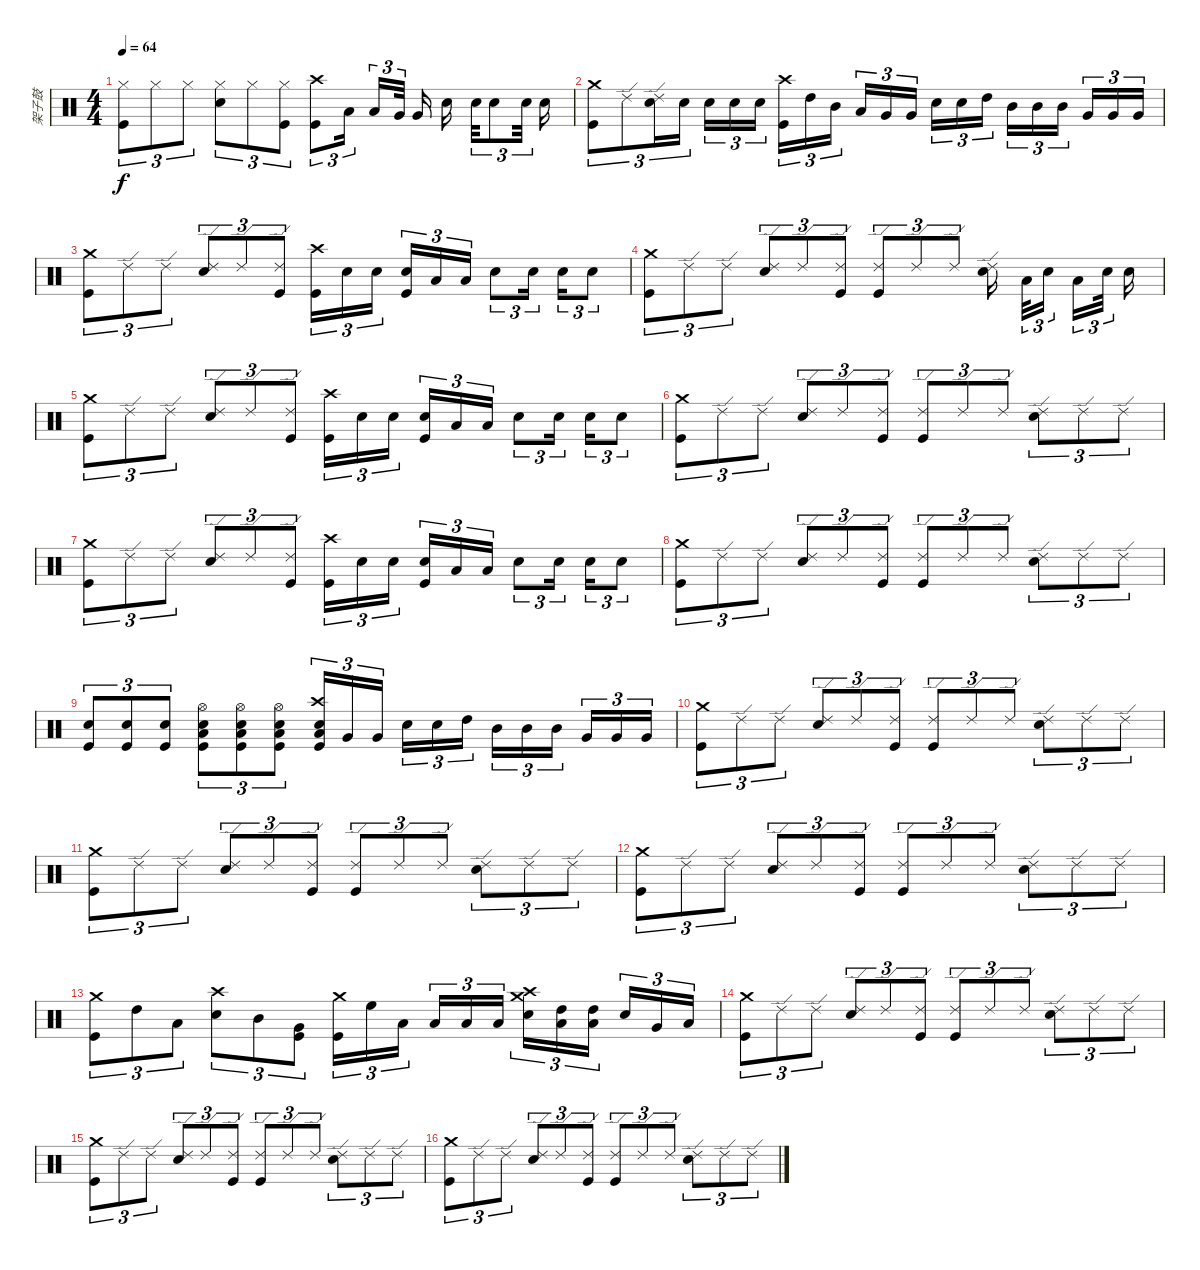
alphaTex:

\track ("架子鼓" "架子鼓") {instrument percussion}
\staff {score}
\articulation defaults
\ts (4 4)
\tempo 64
\clef neutral
\ks c
("Kick (hit)" "Hi-Hat (closed)").8{tu (3 2) dy f} "Hi-Hat (closed)".8{tu (3 2)} "Hi-Hat (closed)".8{tu (3 2)} ("Electric Snare (hit)" "Hi-Hat (closed)").8{tu (3 2)} "Hi-Hat (closed)".8{tu (3 2)} ("Kick (hit)" "Hi-Hat (closed)").8{tu (3 2)} ("Crash high (hit)" "Kick (hit)").8{tu (3 2)} "Low Tom (hit)".16{tu (3 2)} "Low Tom (hit)".16{tu (3 2)} "Very Low Tom (hit)".32{tu (3 2)} "Very Low Tom (hit)".16 "Electric Snare (hit)".16 "Electric Snare (hit)".32{tu (3 2)} "Electric Snare (hit)".8{tu (3 2)} "Electric Snare (hit)".32{tu (3 2)} "Electric Snare (hit)".16 |
("Kick (hit)" "Crash medium (hit)").8{tu (3 2)} "Ride (edge) 2".8{tu (3 2)} ("Electric Snare (hit)" "Ride (edge) 2").16{tu (3 2)} "Electric Snare (hit)".16{tu (3 2)} "Electric Snare (hit)".16{tu (3 2)} "Electric Snare (hit)".16{tu (3 2)} "Electric Snare (hit)".16{tu (3 2)} ("Kick (hit)" "Crash high (hit)").16{tu (3 2)} "High Tom (hit)".16{tu (3 2)} "Mid Tom (hit)".16{tu (3 2)} "Low Tom (hit)".16{tu (3 2)} "Very Low Tom (hit)".16{tu (3 2)} "Very Low Tom (hit)".16{tu (3 2)} "Electric Snare (hit)".16{tu (3 2)} "Electric Snare (hit)".16{tu (3 2)} "High Tom (hit)".16{tu (3 2)} "Mid Tom (hit)".16{tu (3 2)} "Mid Tom (hit)".16{tu (3 2)} "Mid Tom (hit)".16{tu (3 2)} "Very Low Tom (hit)".16{tu (3 2)} "Very Low Tom (hit)".16{tu (3 2)} "Very Low Tom (hit)".16{tu (3 2)} |
("Kick (hit)" "Crash medium (hit)").8{tu (3 2)} "Ride (edge) 2".8{tu (3 2)} "Ride (edge) 2".8{tu (3 2)} ("Electric Snare (hit)" "Ride (edge) 2").8{tu (3 2)} "Ride (edge) 2".8{tu (3 2)} ("Ride (edge) 2" "Kick (hit)").8{tu (3 2)} ("Kick (hit)" "Crash high (hit)").16{tu (3 2)} "Electric Snare (hit)".16{tu (3 2)} "Electric Snare (hit)".16{tu (3 2)} ("Kick (hit)" "Electric Snare (hit)").16{tu (3 2)} "Low Tom (hit)".16{tu (3 2)} "Low Tom (hit)".16{tu (3 2)} "Electric Snare (hit)".8{tu (3 2)} "Electric Snare (hit)".16{tu (3 2)} "Electric Snare (hit)".16{tu (3 2)} "Electric Snare (hit)".8{tu (3 2)} |
("Kick (hit)" "Crash medium (hit)").8{tu (3 2)} "Ride (edge) 2".8{tu (3 2)} "Ride (edge) 2".8{tu (3 2)} ("Electric Snare (hit)" "Ride (edge) 2").8{tu (3 2)} "Ride (edge) 2".8{tu (3 2)} ("Ride (edge) 2" "Kick (hit)").8{tu (3 2)} ("Kick (hit)" "Ride (edge) 2").8{tu (3 2)} "Ride (edge) 2".8{tu (3 2)} "Ride (edge) 2".8{tu (3 2)} ("Ride (edge) 2" "Electric Snare (hit)").16 "Low Tom (hit)".32{tu (3 2)} "Electric Snare (hit)".16{tu (3 2)} "Low Tom (hit)".16{tu (3 2)} "Electric Snare (hit)".32{tu (3 2)} "Electric Snare (hit)".16 |
("Kick (hit)" "Crash medium (hit)").8{tu (3 2)} "Ride (edge) 2".8{tu (3 2)} "Ride (edge) 2".8{tu (3 2)} ("Electric Snare (hit)" "Ride (edge) 2").8{tu (3 2)} "Ride (edge) 2".8{tu (3 2)} ("Ride (edge) 2" "Kick (hit)").8{tu (3 2)} ("Kick (hit)" "Crash high (hit)").16{tu (3 2)} "Electric Snare (hit)".16{tu (3 2)} "Electric Snare (hit)".16{tu (3 2)} ("Kick (hit)" "Electric Snare (hit)").16{tu (3 2)} "Low Tom (hit)".16{tu (3 2)} "Low Tom (hit)".16{tu (3 2)} "Electric Snare (hit)".8{tu (3 2)} "Electric Snare (hit)".16{tu (3 2)} "Electric Snare (hit)".16{tu (3 2)} "Electric Snare (hit)".8{tu (3 2)} |
("Kick (hit)" "Crash medium (hit)").8{tu (3 2)} "Ride (edge) 2".8{tu (3 2)} "Ride (edge) 2".8{tu (3 2)} ("Electric Snare (hit)" "Ride (edge) 2").8{tu (3 2)} "Ride (edge) 2".8{tu (3 2)} ("Ride (edge) 2" "Kick (hit)").8{tu (3 2)} ("Kick (hit)" "Ride (edge) 2").8{tu (3 2)} "Ride (edge) 2".8{tu (3 2)} "Ride (edge) 2".8{tu (3 2)} ("Ride (edge) 2" "Electric Snare (hit)").8{tu (3 2)} "Ride (edge) 2".8{tu (3 2)} "Ride (edge) 2".8{tu (3 2)} |
("Kick (hit)" "Crash medium (hit)").8{tu (3 2)} "Ride (edge) 2".8{tu (3 2)} "Ride (edge) 2".8{tu (3 2)} ("Electric Snare (hit)" "Ride (edge) 2").8{tu (3 2)} "Ride (edge) 2".8{tu (3 2)} ("Ride (edge) 2" "Kick (hit)").8{tu (3 2)} ("Kick (hit)" "Crash high (hit)").16{tu (3 2)} "Electric Snare (hit)".16{tu (3 2)} "Electric Snare (hit)".16{tu (3 2)} ("Kick (hit)" "Electric Snare (hit)").16{tu (3 2)} "Low Tom (hit)".16{tu (3 2)} "Low Tom (hit)".16{tu (3 2)} "Electric Snare (hit)".8{tu (3 2)} "Electric Snare (hit)".16{tu (3 2)} "Electric Snare (hit)".16{tu (3 2)} "Electric Snare (hit)".8{tu (3 2)} |
("Kick (hit)" "Crash medium (hit)").8{tu (3 2)} "Ride (edge) 2".8{tu (3 2)} "Ride (edge) 2".8{tu (3 2)} ("Electric Snare (hit)" "Ride (edge) 2").8{tu (3 2)} "Ride (edge) 2".8{tu (3 2)} ("Ride (edge) 2" "Kick (hit)").8{tu (3 2)} ("Kick (hit)" "Ride (edge) 2").8{tu (3 2)} "Ride (edge) 2".8{tu (3 2)} "Ride (edge) 2".8{tu (3 2)} ("Ride (edge) 2" "Electric Snare (hit)").8{tu (3 2)} "Ride (edge) 2".8{tu (3 2)} "Ride (edge) 2".8{tu (3 2)} |
("Electric Snare (hit)" "Kick (hit)").8{tu (3 2)} ("Electric Snare (hit)" "Kick (hit)").8{tu (3 2)} ("Electric Snare (hit)" "Kick (hit)").8{tu (3 2)} ("Hi-Hat (open)" "Kick (hit)" "Low Tom (hit)" "Electric Snare (hit)").8{tu (3 2)} ("Hi-Hat (open)" "Kick (hit)" "Low Tom (hit)" "Electric Snare (hit)").8{tu (3 2)} ("Hi-Hat (open)" "Kick (hit)" "Low Tom (hit)" "Electric Snare (hit)").8{tu (3 2)} ("Kick (hit)" "Electric Snare (hit)" "Crash high (hit)" "Low Tom (hit)").16{tu (3 2)} "Very Low Tom (hit)".16{tu (3 2)} "Very Low Tom (hit)".16{tu (3 2)} "Electric Snare (hit)".16{tu (3 2)} "Electric Snare (hit)".16{tu (3 2)} "High Tom (hit)".16{tu (3 2)} "Mid Tom (hit)".16{tu (3 2)} "Mid Tom (hit)".16{tu (3 2)} "Mid Tom (hit)".16{tu (3 2)} "Very Low Tom (hit)".16{tu (3 2)} "Very Low Tom (hit)".16{tu (3 2)} "Very Low Tom (hit)".16{tu (3 2)} |
("Kick (hit)" "Crash medium (hit)").8{tu (3 2)} "Ride (edge) 2".8{tu (3 2)} "Ride (edge) 2".8{tu (3 2)} ("Electric Snare (hit)" "Ride (edge) 2").8{tu (3 2)} "Ride (edge) 2".8{tu (3 2)} ("Ride (edge) 2" "Kick (hit)").8{tu (3 2)} ("Kick (hit)" "Ride (edge) 2").8{tu (3 2)} "Ride (edge) 2".8{tu (3 2)} "Ride (edge) 2".8{tu (3 2)} ("Ride (edge) 2" "Electric Snare (hit)").8{tu (3 2)} "Ride (edge) 2".8{tu (3 2)} "Ride (edge) 2".8{tu (3 2)} |
("Kick (hit)" "Crash medium (hit)").8{tu (3 2)} "Ride (edge) 2".8{tu (3 2)} "Ride (edge) 2".8{tu (3 2)} ("Electric Snare (hit)" "Ride (edge) 2").8{tu (3 2)} "Ride (edge) 2".8{tu (3 2)} ("Ride (edge) 2" "Kick (hit)").8{tu (3 2)} ("Kick (hit)" "Ride (edge) 2").8{tu (3 2)} "Ride (edge) 2".8{tu (3 2)} "Ride (edge) 2".8{tu (3 2)} ("Ride (edge) 2" "Electric Snare (hit)").8{tu (3 2)} "Ride (edge) 2".8{tu (3 2)} "Ride (edge) 2".8{tu (3 2)} |
("Kick (hit)" "Crash medium (hit)").8{tu (3 2)} "Ride (edge) 2".8{tu (3 2)} "Ride (edge) 2".8{tu (3 2)} ("Electric Snare (hit)" "Ride (edge) 2").8{tu (3 2)} "Ride (edge) 2".8{tu (3 2)} ("Ride (edge) 2" "Kick (hit)").8{tu (3 2)} ("Kick (hit)" "Ride (edge) 2").8{tu (3 2)} "Ride (edge) 2".8{tu (3 2)} "Ride (edge) 2".8{tu (3 2)} ("Ride (edge) 2" "Electric Snare (hit)").8{tu (3 2)} "Ride (edge) 2".8{tu (3 2)} "Ride (edge) 2".8{tu (3 2)} |
("Kick (hit)" "Crash medium (hit)").8{tu (3 2)} "High Tom (hit)".8{tu (3 2)} "Low Tom (hit)".8{tu (3 2)} ("Electric Snare (hit)" "Crash high (hit)").8{tu (3 2)} "Mid Tom (hit)".8{tu (3 2)} ("Very Low Tom (hit)" "Kick (hit)").8{tu (3 2)} ("Kick (hit)" "Crash medium (hit)").16{tu (3 2)} "High Floor Tom (hit)".16{tu (3 2)} "Low Tom (hit)".16{tu (3 2)} "Low Tom (hit)".16{tu (3 2)} "Low Tom (hit)".16{tu (3 2)} "Low Tom (hit)".16{tu (3 2)} ("Crash medium (hit)" "Crash high (hit)" "Electric Snare (hit)").16{tu (3 2)} ("Low Tom (hit)" "High Tom (hit)").16{tu (3 2)} ("Low Tom (hit)" "High Tom (hit)").16{tu (3 2)} "Electric Snare (hit)".16{tu (3 2)} "Very Low Tom (hit)".16{tu (3 2)} "Low Tom (hit)".16{tu (3 2)} |
("Kick (hit)" "Crash medium (hit)").8{tu (3 2)} "Ride (edge) 2".8{tu (3 2)} "Ride (edge) 2".8{tu (3 2)} ("Electric Snare (hit)" "Ride (edge) 2").8{tu (3 2)} "Ride (edge) 2".8{tu (3 2)} ("Ride (edge) 2" "Kick (hit)").8{tu (3 2)} ("Kick (hit)" "Ride (edge) 2").8{tu (3 2)} "Ride (edge) 2".8{tu (3 2)} "Ride (edge) 2".8{tu (3 2)} ("Ride (edge) 2" "Electric Snare (hit)").8{tu (3 2)} "Ride (edge) 2".8{tu (3 2)} "Ride (edge) 2".8{tu (3 2)} |
("Kick (hit)" "Crash medium (hit)").8{tu (3 2)} "Ride (edge) 2".8{tu (3 2)} "Ride (edge) 2".8{tu (3 2)} ("Electric Snare (hit)" "Ride (edge) 2").8{tu (3 2)} "Ride (edge) 2".8{tu (3 2)} ("Ride (edge) 2" "Kick (hit)").8{tu (3 2)} ("Kick (hit)" "Ride (edge) 2").8{tu (3 2)} "Ride (edge) 2".8{tu (3 2)} "Ride (edge) 2".8{tu (3 2)} ("Ride (edge) 2" "Electric Snare (hit)").8{tu (3 2)} "Ride (edge) 2".8{tu (3 2)} "Ride (edge) 2".8{tu (3 2)} |
("Kick (hit)" "Crash medium (hit)").8{tu (3 2)} "Ride (edge) 2".8{tu (3 2)} "Ride (edge) 2".8{tu (3 2)} ("Electric Snare (hit)" "Ride (edge) 2").8{tu (3 2)} "Ride (edge) 2".8{tu (3 2)} ("Ride (edge) 2" "Kick (hit)").8{tu (3 2)} ("Kick (hit)" "Ride (edge) 2").8{tu (3 2)} "Ride (edge) 2".8{tu (3 2)} "Ride (edge) 2".8{tu (3 2)} ("Ride (edge) 2" "Electric Snare (hit)").8{tu (3 2)} "Ride (edge) 2".8{tu (3 2)} "Ride (edge) 2".8{tu (3 2)}
